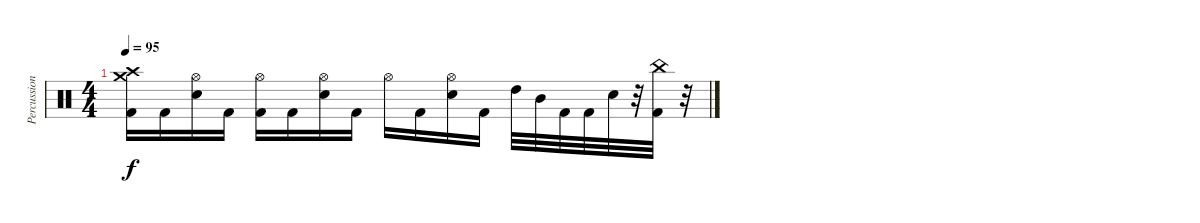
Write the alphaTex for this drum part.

\track ("Percussion" "Percussion") {instrument percussion}
\staff {score}
\articulation defaults
\ts (4 4)
\tempo 95
\clef neutral
\ks c
("Crash medium (hit)" "Crash high (hit)" "Kick (hit) 2").16{dy f} "Kick (hit) 2".16 ("Hi-Hat (open)" "Electric Snare (hit)").16 "Kick (hit) 2".16 ("Hi-Hat (open)" "Kick (hit) 2").16 "Kick (hit) 2".16 ("Hi-Hat (open)" "Electric Snare (hit)").16 "Kick (hit) 2".16 "Hi-Hat (open)".16 "Kick (hit) 2".16 ("Hi-Hat (open)" "Electric Snare (hit)").16 "Kick (hit) 2".16 "High Tom (hit)".32 "Mid Tom (hit)".32 "Kick (hit) 2".32 "Kick (hit) 2".32 "Electric Snare (hit)".32 r.32 ("China (hit)" "Kick (hit) 2").32 r.32
